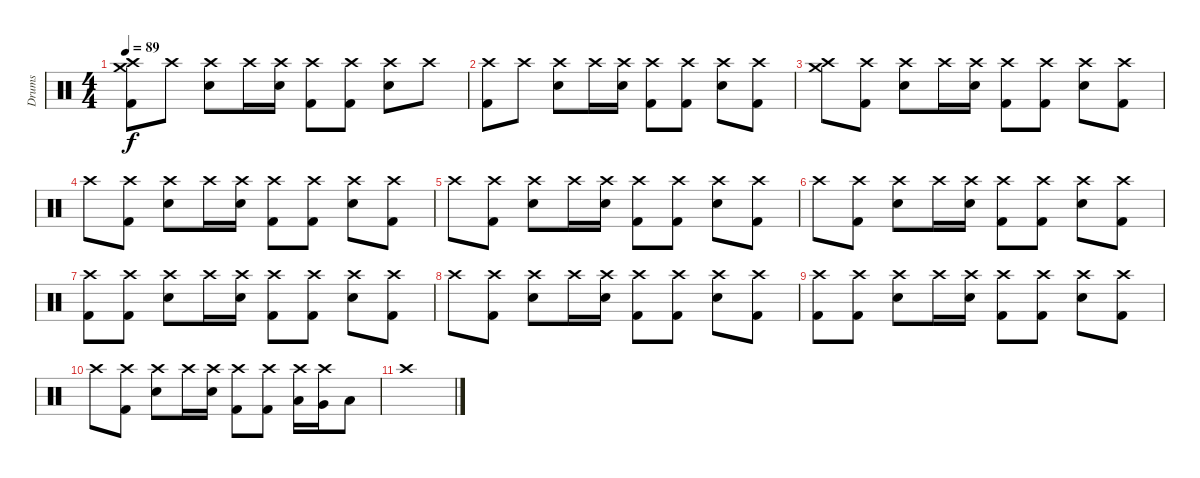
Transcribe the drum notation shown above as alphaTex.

\track ("Drums" "Drums") {instrument percussion}
\staff {score}
\articulation defaults
\ts (4 4)
\tempo 89
\clef neutral
\ks c
("Crash high (hit)" "Crash medium (hit)" "Kick (hit) 2").8{dy f} "Crash high (hit)".8 ("Crash high (hit)" "Electric Snare (hit)").8 "Crash high (hit)".16 ("Crash high (hit)" "Electric Snare (hit)").16 ("Crash high (hit)" "Kick (hit) 2").8 ("Crash high (hit)" "Kick (hit) 2").8 ("Crash high (hit)" "Electric Snare (hit)").8 "Crash high (hit)".8 |
("Crash high (hit)" "Kick (hit) 2").8 "Crash high (hit)".8 ("Crash high (hit)" "Electric Snare (hit)").8 "Crash high (hit)".16 ("Crash high (hit)" "Electric Snare (hit)").16 ("Crash high (hit)" "Kick (hit) 2").8 ("Crash high (hit)" "Kick (hit) 2").8 ("Crash high (hit)" "Electric Snare (hit)").8 ("Crash high (hit)" "Kick (hit) 2").8 |
("Crash high (hit)" "Crash medium (hit)").8 ("Crash high (hit)" "Kick (hit) 2").8 ("Crash high (hit)" "Electric Snare (hit)").8 "Crash high (hit)".16 ("Crash high (hit)" "Electric Snare (hit)").16 ("Crash high (hit)" "Kick (hit) 2").8 ("Crash high (hit)" "Kick (hit) 2").8 ("Crash high (hit)" "Electric Snare (hit)").8 ("Crash high (hit)" "Kick (hit) 2").8 |
"Crash high (hit)".8 ("Crash high (hit)" "Kick (hit) 2").8 ("Crash high (hit)" "Electric Snare (hit)").8 "Crash high (hit)".16 ("Crash high (hit)" "Electric Snare (hit)").16 ("Crash high (hit)" "Kick (hit) 2").8 ("Crash high (hit)" "Kick (hit) 2").8 ("Crash high (hit)" "Electric Snare (hit)").8 ("Crash high (hit)" "Kick (hit) 2").8 |
"Crash high (hit)".8 ("Crash high (hit)" "Kick (hit) 2").8 ("Crash high (hit)" "Electric Snare (hit)").8 "Crash high (hit)".16 ("Crash high (hit)" "Electric Snare (hit)").16 ("Crash high (hit)" "Kick (hit) 2").8 ("Crash high (hit)" "Kick (hit) 2").8 ("Crash high (hit)" "Electric Snare (hit)").8 ("Crash high (hit)" "Kick (hit) 2").8 |
"Crash high (hit)".8 ("Crash high (hit)" "Kick (hit) 2").8 ("Crash high (hit)" "Electric Snare (hit)").8 "Crash high (hit)".16 ("Crash high (hit)" "Electric Snare (hit)").16 ("Crash high (hit)" "Kick (hit) 2").8 ("Crash high (hit)" "Kick (hit) 2").8 ("Crash high (hit)" "Electric Snare (hit)").8 ("Crash high (hit)" "Kick (hit) 2").8 |
("Crash high (hit)" "Kick (hit) 2").8 ("Crash high (hit)" "Kick (hit) 2").8 ("Crash high (hit)" "Electric Snare (hit)").8 "Crash high (hit)".16 ("Crash high (hit)" "Electric Snare (hit)").16 ("Crash high (hit)" "Kick (hit) 2").8 ("Crash high (hit)" "Kick (hit) 2").8 ("Crash high (hit)" "Electric Snare (hit)").8 ("Crash high (hit)" "Kick (hit) 2").8 |
"Crash high (hit)".8 ("Crash high (hit)" "Kick (hit) 2").8 ("Crash high (hit)" "Electric Snare (hit)").8 "Crash high (hit)".16 ("Crash high (hit)" "Electric Snare (hit)").16 ("Crash high (hit)" "Kick (hit) 2").8 ("Crash high (hit)" "Kick (hit) 2").8 ("Crash high (hit)" "Electric Snare (hit)").8 ("Crash high (hit)" "Kick (hit) 2").8 |
("Crash high (hit)" "Kick (hit) 2").8 ("Crash high (hit)" "Kick (hit) 2").8 ("Crash high (hit)" "Electric Snare (hit)").8 "Crash high (hit)".16 ("Crash high (hit)" "Electric Snare (hit)").16 ("Crash high (hit)" "Kick (hit) 2").8 ("Crash high (hit)" "Kick (hit) 2").8 ("Crash high (hit)" "Electric Snare (hit)").8 ("Crash high (hit)" "Kick (hit) 2").8 |
"Crash high (hit)".8 ("Crash high (hit)" "Kick (hit) 2").8 ("Crash high (hit)" "Electric Snare (hit)").8 "Crash high (hit)".16 ("Crash high (hit)" "Electric Snare (hit)").16 ("Crash high (hit)" "Kick (hit) 2").8 ("Crash high (hit)" "Kick (hit) 2").8 ("Crash high (hit)" "Low Tom (hit)").16 ("Crash high (hit)" "Very Low Tom (hit)").16 "Low Floor Tom (hit)".8 |
"Crash high (hit)".1
